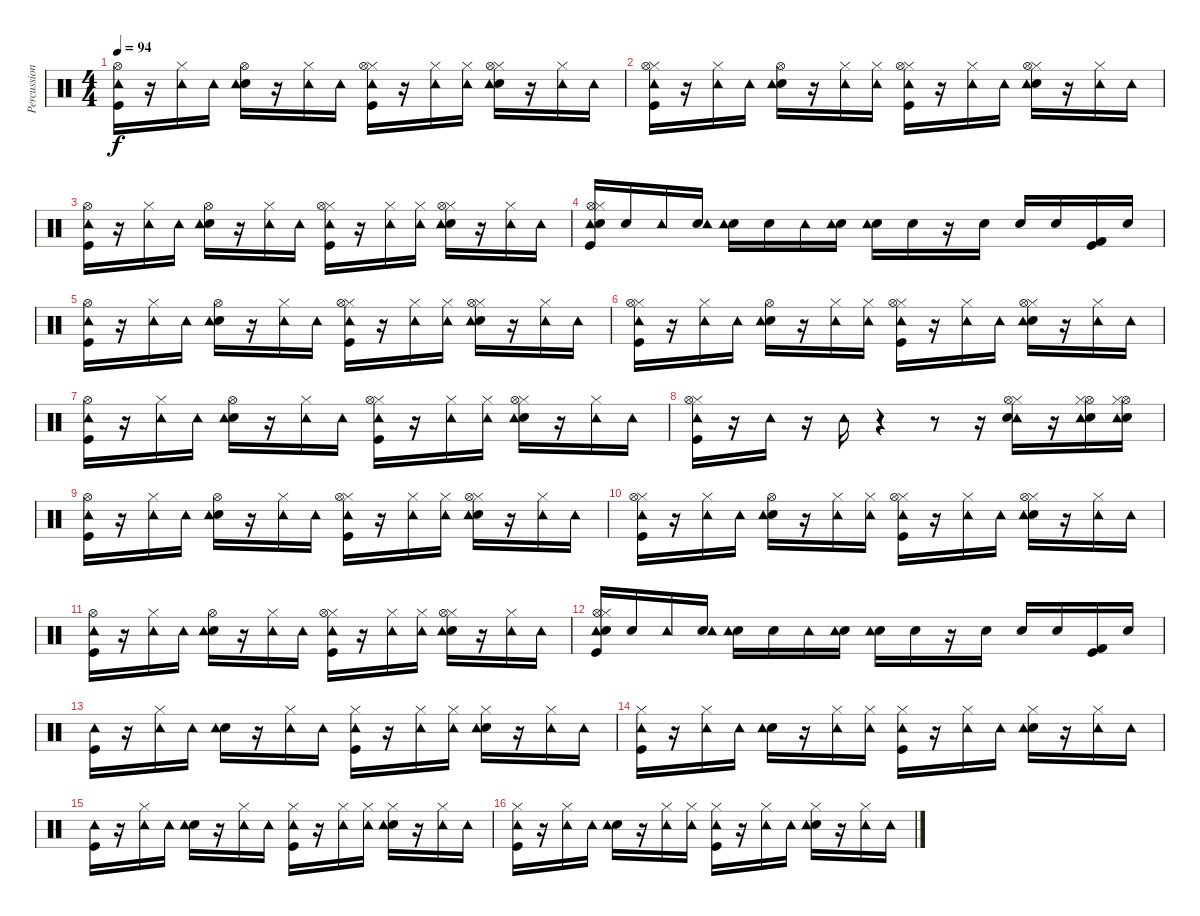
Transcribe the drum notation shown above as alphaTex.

\track ("Percussions/From Midi" "Percussion") {instrument percussion}
\staff {score}
\articulation defaults
\ts (4 4)
\tempo 94
\clef neutral
\ks c
("Kick (hit)" "Tambourine (hit)" "Hi-Hat (open)").16{dy f} r.16 ("Hi-Hat (closed)" "Tambourine (hit)").16 "Tambourine (hit)".16 ("Electric Snare (hit)" "Tambourine (hit)" "Hi-Hat (open)").16 r.16 ("Hi-Hat (closed)" "Tambourine (hit)").16 "Tambourine (hit)".16 ("Kick (hit)" "Hi-Hat (closed)" "Tambourine (hit)" "Hi-Hat (open)").16 r.16 ("Hi-Hat (closed)" "Tambourine (hit)").16 ("Hi-Hat (closed)" "Tambourine (hit)").16 ("Electric Snare (hit)" "Hi-Hat (closed)" "Tambourine (hit)" "Hi-Hat (open)").16 r.16 ("Hi-Hat (closed)" "Tambourine (hit)").16 "Tambourine (hit)".16 |
("Kick (hit)" "Hi-Hat (closed)" "Tambourine (hit)" "Hi-Hat (open)").16 r.16 ("Hi-Hat (closed)" "Tambourine (hit)").16 "Tambourine (hit)".16 ("Electric Snare (hit)" "Tambourine (hit)" "Hi-Hat (open)").16 r.16 ("Hi-Hat (closed)" "Tambourine (hit)").16 ("Hi-Hat (closed)" "Tambourine (hit)").16 ("Kick (hit)" "Hi-Hat (closed)" "Tambourine (hit)" "Hi-Hat (open)").16 r.16 ("Hi-Hat (closed)" "Tambourine (hit)").16 "Tambourine (hit)".16 ("Electric Snare (hit)" "Hi-Hat (closed)" "Tambourine (hit)" "Hi-Hat (open)").16 r.16 ("Hi-Hat (closed)" "Tambourine (hit)").16 "Tambourine (hit)".16 |
("Kick (hit)" "Tambourine (hit)" "Hi-Hat (open)").16 r.16 ("Hi-Hat (closed)" "Tambourine (hit)").16 "Tambourine (hit)".16 ("Electric Snare (hit)" "Tambourine (hit)" "Hi-Hat (open)").16 r.16 ("Hi-Hat (closed)" "Tambourine (hit)").16 "Tambourine (hit)".16 ("Kick (hit)" "Hi-Hat (closed)" "Tambourine (hit)" "Hi-Hat (open)").16 r.16 ("Hi-Hat (closed)" "Tambourine (hit)").16 ("Hi-Hat (closed)" "Tambourine (hit)").16 ("Electric Snare (hit)" "Hi-Hat (closed)" "Tambourine (hit)" "Hi-Hat (open)").16 r.16 ("Hi-Hat (closed)" "Tambourine (hit)").16 "Tambourine (hit)".16 |
("Kick (hit)" "Tambourine (hit)" "Hi-Hat (open)" "Hi-Hat (closed)" "Electric Snare (hit)").16 "Electric Snare (hit)".16 "Tambourine (hit)".16 ("Electric Snare (hit)" "Tambourine (hit)").16 ("Electric Snare (hit)" "Tambourine (hit)").16 "Electric Snare (hit)".16 "Tambourine (hit)".16 ("Electric Snare (hit)" "Tambourine (hit)").16 ("Electric Snare (hit)" "Tambourine (hit)").16 "Electric Snare (hit)".16 r.16 "Electric Snare (hit)".16 "Electric Snare (hit)".16 "Electric Snare (hit)".16 ("Kick (hit)" "Kick (hit) 2").16 "Electric Snare (hit)".16 |
("Kick (hit)" "Tambourine (hit)" "Hi-Hat (open)").16 r.16 ("Hi-Hat (closed)" "Tambourine (hit)").16 "Tambourine (hit)".16 ("Electric Snare (hit)" "Tambourine (hit)" "Hi-Hat (open)").16 r.16 ("Hi-Hat (closed)" "Tambourine (hit)").16 "Tambourine (hit)".16 ("Kick (hit)" "Hi-Hat (closed)" "Tambourine (hit)" "Hi-Hat (open)").16 r.16 ("Hi-Hat (closed)" "Tambourine (hit)").16 ("Hi-Hat (closed)" "Tambourine (hit)").16 ("Electric Snare (hit)" "Hi-Hat (closed)" "Tambourine (hit)" "Hi-Hat (open)").16 r.16 ("Hi-Hat (closed)" "Tambourine (hit)").16 "Tambourine (hit)".16 |
("Kick (hit)" "Hi-Hat (closed)" "Tambourine (hit)" "Hi-Hat (open)").16 r.16 ("Hi-Hat (closed)" "Tambourine (hit)").16 "Tambourine (hit)".16 ("Electric Snare (hit)" "Tambourine (hit)" "Hi-Hat (open)").16 r.16 ("Hi-Hat (closed)" "Tambourine (hit)").16 ("Hi-Hat (closed)" "Tambourine (hit)").16 ("Kick (hit)" "Hi-Hat (closed)" "Tambourine (hit)" "Hi-Hat (open)").16 r.16 ("Hi-Hat (closed)" "Tambourine (hit)").16 "Tambourine (hit)".16 ("Electric Snare (hit)" "Hi-Hat (closed)" "Tambourine (hit)" "Hi-Hat (open)").16 r.16 ("Hi-Hat (closed)" "Tambourine (hit)").16 "Tambourine (hit)".16 |
("Kick (hit)" "Tambourine (hit)" "Hi-Hat (open)").16 r.16 ("Hi-Hat (closed)" "Tambourine (hit)").16 "Tambourine (hit)".16 ("Electric Snare (hit)" "Tambourine (hit)" "Hi-Hat (open)").16 r.16 ("Hi-Hat (closed)" "Tambourine (hit)").16 "Tambourine (hit)".16 ("Kick (hit)" "Hi-Hat (closed)" "Tambourine (hit)" "Hi-Hat (open)").16 r.16 ("Hi-Hat (closed)" "Tambourine (hit)").16 ("Hi-Hat (closed)" "Tambourine (hit)").16 ("Electric Snare (hit)" "Hi-Hat (closed)" "Tambourine (hit)" "Hi-Hat (open)").16 r.16 ("Hi-Hat (closed)" "Tambourine (hit)").16 "Tambourine (hit)".16 |
("Kick (hit)" "Hi-Hat (closed)" "Tambourine (hit)" "Hi-Hat (open)").16 r.16 "Tambourine (hit)".16 r.16 "Tambourine (hit)".16 r.4 r.8 r.16 ("Hi-Hat (closed)" "Tambourine (hit)" "Hi-Hat (open)" "Electric Snare (hit)").16 r.16 ("Electric Snare (hit)" "Hi-Hat (open)" "Tambourine (hit)" "Hi-Hat (closed)").16 ("Electric Snare (hit)" "Hi-Hat (open)" "Tambourine (hit)" "Hi-Hat (closed)").16 |
("Kick (hit)" "Tambourine (hit)" "Hi-Hat (open)").16 r.16 ("Hi-Hat (closed)" "Tambourine (hit)").16 "Tambourine (hit)".16 ("Electric Snare (hit)" "Tambourine (hit)" "Hi-Hat (open)").16 r.16 ("Hi-Hat (closed)" "Tambourine (hit)").16 "Tambourine (hit)".16 ("Kick (hit)" "Hi-Hat (closed)" "Tambourine (hit)" "Hi-Hat (open)").16 r.16 ("Hi-Hat (closed)" "Tambourine (hit)").16 ("Hi-Hat (closed)" "Tambourine (hit)").16 ("Electric Snare (hit)" "Hi-Hat (closed)" "Tambourine (hit)" "Hi-Hat (open)").16 r.16 ("Hi-Hat (closed)" "Tambourine (hit)").16 "Tambourine (hit)".16 |
("Kick (hit)" "Hi-Hat (closed)" "Tambourine (hit)" "Hi-Hat (open)").16 r.16 ("Hi-Hat (closed)" "Tambourine (hit)").16 "Tambourine (hit)".16 ("Electric Snare (hit)" "Tambourine (hit)" "Hi-Hat (open)").16 r.16 ("Hi-Hat (closed)" "Tambourine (hit)").16 ("Hi-Hat (closed)" "Tambourine (hit)").16 ("Kick (hit)" "Hi-Hat (closed)" "Tambourine (hit)" "Hi-Hat (open)").16 r.16 ("Hi-Hat (closed)" "Tambourine (hit)").16 "Tambourine (hit)".16 ("Electric Snare (hit)" "Hi-Hat (closed)" "Tambourine (hit)" "Hi-Hat (open)").16 r.16 ("Hi-Hat (closed)" "Tambourine (hit)").16 "Tambourine (hit)".16 |
("Kick (hit)" "Tambourine (hit)" "Hi-Hat (open)").16 r.16 ("Hi-Hat (closed)" "Tambourine (hit)").16 "Tambourine (hit)".16 ("Electric Snare (hit)" "Tambourine (hit)" "Hi-Hat (open)").16 r.16 ("Hi-Hat (closed)" "Tambourine (hit)").16 "Tambourine (hit)".16 ("Kick (hit)" "Hi-Hat (closed)" "Tambourine (hit)" "Hi-Hat (open)").16 r.16 ("Hi-Hat (closed)" "Tambourine (hit)").16 ("Hi-Hat (closed)" "Tambourine (hit)").16 ("Electric Snare (hit)" "Hi-Hat (closed)" "Tambourine (hit)" "Hi-Hat (open)").16 r.16 ("Hi-Hat (closed)" "Tambourine (hit)").16 "Tambourine (hit)".16 |
("Kick (hit)" "Tambourine (hit)" "Hi-Hat (open)" "Hi-Hat (closed)" "Electric Snare (hit)").16 "Electric Snare (hit)".16 "Tambourine (hit)".16 ("Electric Snare (hit)" "Tambourine (hit)").16 ("Electric Snare (hit)" "Tambourine (hit)").16 "Electric Snare (hit)".16 "Tambourine (hit)".16 ("Electric Snare (hit)" "Tambourine (hit)").16 ("Electric Snare (hit)" "Tambourine (hit)").16 "Electric Snare (hit)".16 r.16 "Electric Snare (hit)".16 "Electric Snare (hit)".16 "Electric Snare (hit)".16 ("Kick (hit)" "Kick (hit) 2").16 "Electric Snare (hit)".16 |
("Kick (hit)" "Tambourine (hit)").16 r.16 ("Hi-Hat (closed)" "Tambourine (hit)").16 "Tambourine (hit)".16 ("Electric Snare (hit)" "Tambourine (hit)").16 r.16 ("Hi-Hat (closed)" "Tambourine (hit)").16 "Tambourine (hit)".16 ("Kick (hit)" "Hi-Hat (closed)" "Tambourine (hit)").16 r.16 ("Hi-Hat (closed)" "Tambourine (hit)").16 ("Hi-Hat (closed)" "Tambourine (hit)").16 ("Electric Snare (hit)" "Hi-Hat (closed)" "Tambourine (hit)").16 r.16 ("Hi-Hat (closed)" "Tambourine (hit)").16 "Tambourine (hit)".16 |
("Kick (hit)" "Hi-Hat (closed)" "Tambourine (hit)").16 r.16 ("Hi-Hat (closed)" "Tambourine (hit)").16 "Tambourine (hit)".16 ("Electric Snare (hit)" "Tambourine (hit)").16 r.16 ("Hi-Hat (closed)" "Tambourine (hit)").16 ("Hi-Hat (closed)" "Tambourine (hit)").16 ("Kick (hit)" "Hi-Hat (closed)" "Tambourine (hit)").16 r.16 ("Hi-Hat (closed)" "Tambourine (hit)").16 "Tambourine (hit)".16 ("Electric Snare (hit)" "Hi-Hat (closed)" "Tambourine (hit)").16 r.16 ("Hi-Hat (closed)" "Tambourine (hit)").16 "Tambourine (hit)".16 |
("Kick (hit)" "Tambourine (hit)").16 r.16 ("Hi-Hat (closed)" "Tambourine (hit)").16 "Tambourine (hit)".16 ("Electric Snare (hit)" "Tambourine (hit)").16 r.16 ("Hi-Hat (closed)" "Tambourine (hit)").16 "Tambourine (hit)".16 ("Kick (hit)" "Hi-Hat (closed)" "Tambourine (hit)").16 r.16 ("Hi-Hat (closed)" "Tambourine (hit)").16 ("Hi-Hat (closed)" "Tambourine (hit)").16 ("Electric Snare (hit)" "Hi-Hat (closed)" "Tambourine (hit)").16 r.16 ("Hi-Hat (closed)" "Tambourine (hit)").16 "Tambourine (hit)".16 |
("Kick (hit)" "Hi-Hat (closed)" "Tambourine (hit)").16 r.16 ("Hi-Hat (closed)" "Tambourine (hit)").16 "Tambourine (hit)".16 ("Electric Snare (hit)" "Tambourine (hit)").16 r.16 ("Hi-Hat (closed)" "Tambourine (hit)").16 ("Hi-Hat (closed)" "Tambourine (hit)").16 ("Kick (hit)" "Hi-Hat (closed)" "Tambourine (hit)").16 r.16 ("Hi-Hat (closed)" "Tambourine (hit)").16 "Tambourine (hit)".16 ("Electric Snare (hit)" "Hi-Hat (closed)" "Tambourine (hit)").16 r.16 ("Hi-Hat (closed)" "Tambourine (hit)").16 "Tambourine (hit)".16
